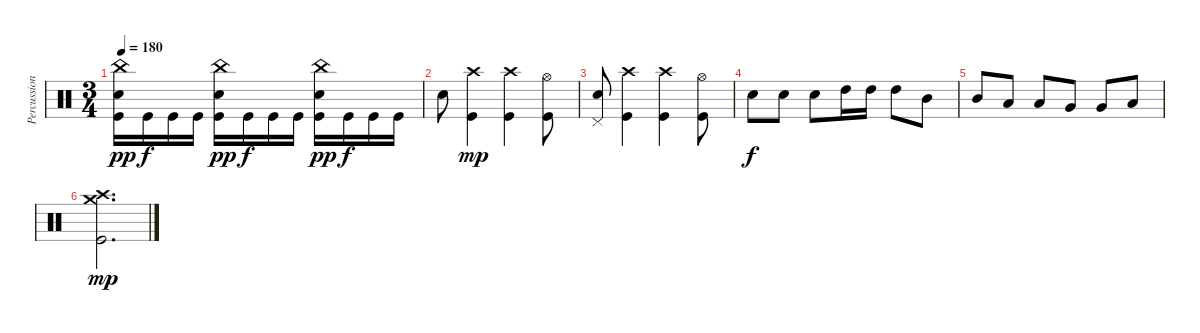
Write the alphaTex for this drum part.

\track ("Percussion" "Percussion") {instrument percussion}
\staff {score}
\articulation defaults
\ts (3 4)
\tempo 180
\clef neutral
\ks c
("China (hit)" "Electric Snare (hit)" "Kick (hit)").16{dy pp} "Kick (hit)".16{dy f} "Kick (hit)".16 "Kick (hit)".16 ("China (hit)" "Electric Snare (hit)" "Kick (hit)").16{dy pp} "Kick (hit)".16{dy f} "Kick (hit)".16 "Kick (hit)".16 ("China (hit)" "Electric Snare (hit)" "Kick (hit)").16{dy pp} "Kick (hit)".16{dy f} "Kick (hit)".16 "Kick (hit)".16 |
"Electric Snare (hit)".8 ("Crash high (hit)" "Kick (hit)").4{dy mp} ("Crash high (hit)" "Kick (hit)").4 ("Hi-Hat (open)" "Kick (hit)").8 |
("Pedal Hi-Hat (hit)" "Electric Snare (hit)").8 ("Crash high (hit)" "Kick (hit)").4 ("Crash high (hit)" "Kick (hit)").4 ("Hi-Hat (open)" "Kick (hit)").8 |
"Electric Snare (hit)".8{dy f} "Electric Snare (hit)".8 "Electric Snare (hit)".8 "High Tom (hit)".16 "High Tom (hit)".16 "High Tom (hit)".8 "Mid Tom (hit)".8 |
"Mid Tom (hit)".8 "Low Tom (hit)".8 "Low Tom (hit)".8 "Very Low Tom (hit)".8 "Very Low Tom (hit)".8 "Low Floor Tom (hit)".8 |
("Crash high (hit)" "Crash medium (hit)" "Kick (hit)").2{d dy mp}
